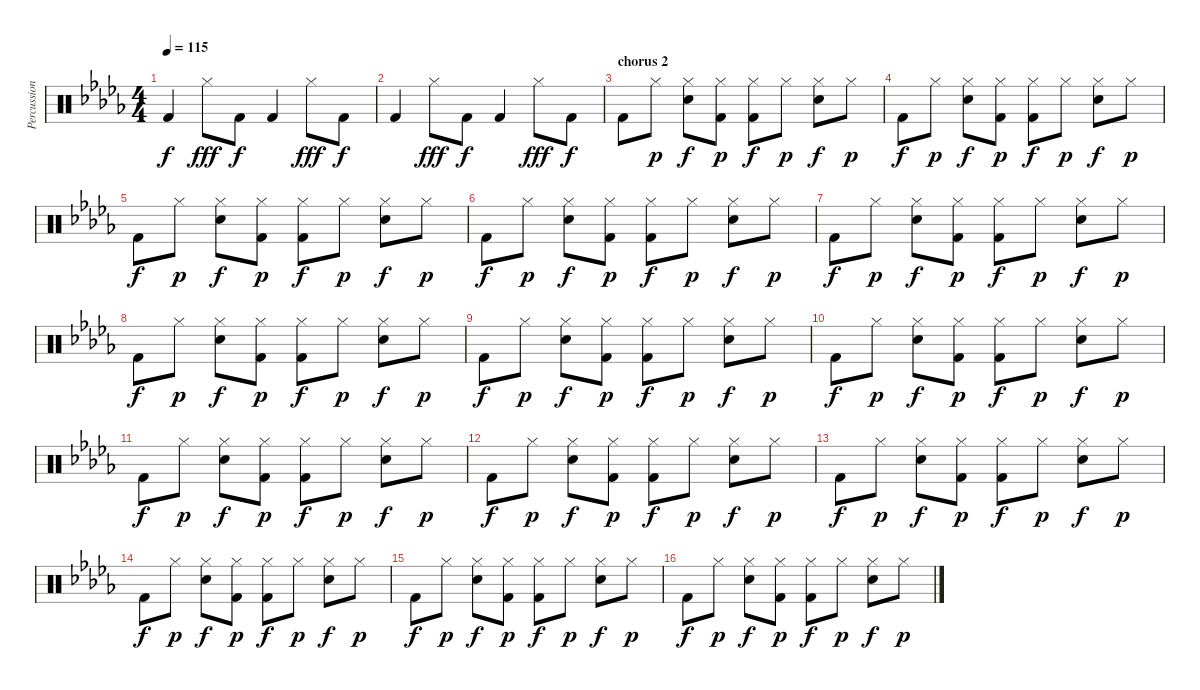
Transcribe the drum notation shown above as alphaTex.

\track ("Percussion" "Percussion") {instrument percussion}
\staff {score}
\articulation defaults
\ts (4 4)
\tempo 115
\clef neutral
\ks db "Kick (hit) 2".4{dy f} "Hi-Hat (closed)".8{dy fff} "Kick (hit) 2".8{dy f} "Kick (hit) 2".4 "Hi-Hat (closed)".8{dy fff} "Kick (hit) 2".8{dy f}
|
"Kick (hit) 2".4 "Hi-Hat (closed)".8{dy fff} "Kick (hit) 2".8{dy f} "Kick (hit) 2".4 "Hi-Hat (closed)".8{dy fff} "Kick (hit) 2".8{dy f} |
\section ("" "chorus 2")
"Kick (hit) 2".8 "Hi-Hat (closed)".8{dy p} ("Hi-Hat (closed)" "Hand Clap (hit)").8{dy f} ("Hi-Hat (closed)" "Kick (hit) 2").8{dy p} ("Kick (hit) 2" "Hi-Hat (closed)").8{dy f} "Hi-Hat (closed)".8{dy p} ("Hand Clap (hit)" "Hi-Hat (closed)").8{dy f} "Hi-Hat (closed)".8{dy p} |
"Kick (hit) 2".8{dy f} "Hi-Hat (closed)".8{dy p} ("Hi-Hat (closed)" "Hand Clap (hit)").8{dy f} ("Hi-Hat (closed)" "Kick (hit) 2").8{dy p} ("Kick (hit) 2" "Hi-Hat (closed)").8{dy f} "Hi-Hat (closed)".8{dy p} ("Hand Clap (hit)" "Hi-Hat (closed)").8{dy f} "Hi-Hat (closed)".8{dy p} |
"Kick (hit) 2".8{dy f} "Hi-Hat (closed)".8{dy p} ("Hi-Hat (closed)" "Hand Clap (hit)").8{dy f} ("Hi-Hat (closed)" "Kick (hit) 2").8{dy p} ("Kick (hit) 2" "Hi-Hat (closed)").8{dy f} "Hi-Hat (closed)".8{dy p} ("Hand Clap (hit)" "Hi-Hat (closed)").8{dy f} "Hi-Hat (closed)".8{dy p} |
"Kick (hit) 2".8{dy f} "Hi-Hat (closed)".8{dy p} ("Hi-Hat (closed)" "Hand Clap (hit)").8{dy f} ("Hi-Hat (closed)" "Kick (hit) 2").8{dy p} ("Kick (hit) 2" "Hi-Hat (closed)").8{dy f} "Hi-Hat (closed)".8{dy p} ("Hand Clap (hit)" "Hi-Hat (closed)").8{dy f} "Hi-Hat (closed)".8{dy p} |
"Kick (hit) 2".8{dy f} "Hi-Hat (closed)".8{dy p} ("Hi-Hat (closed)" "Hand Clap (hit)").8{dy f} ("Hi-Hat (closed)" "Kick (hit) 2").8{dy p} ("Kick (hit) 2" "Hi-Hat (closed)").8{dy f} "Hi-Hat (closed)".8{dy p} ("Hand Clap (hit)" "Hi-Hat (closed)").8{dy f} "Hi-Hat (closed)".8{dy p} |
"Kick (hit) 2".8{dy f} "Hi-Hat (closed)".8{dy p} ("Hi-Hat (closed)" "Hand Clap (hit)").8{dy f} ("Hi-Hat (closed)" "Kick (hit) 2").8{dy p} ("Kick (hit) 2" "Hi-Hat (closed)").8{dy f} "Hi-Hat (closed)".8{dy p} ("Hand Clap (hit)" "Hi-Hat (closed)").8{dy f} "Hi-Hat (closed)".8{dy p} |
"Kick (hit) 2".8{dy f} "Hi-Hat (closed)".8{dy p} ("Hi-Hat (closed)" "Hand Clap (hit)").8{dy f} ("Hi-Hat (closed)" "Kick (hit) 2").8{dy p} ("Kick (hit) 2" "Hi-Hat (closed)").8{dy f} "Hi-Hat (closed)".8{dy p} ("Hand Clap (hit)" "Hi-Hat (closed)").8{dy f} "Hi-Hat (closed)".8{dy p} |
"Kick (hit) 2".8{dy f} "Hi-Hat (closed)".8{dy p} ("Hi-Hat (closed)" "Hand Clap (hit)").8{dy f} ("Hi-Hat (closed)" "Kick (hit) 2").8{dy p} ("Kick (hit) 2" "Hi-Hat (closed)").8{dy f} "Hi-Hat (closed)".8{dy p} ("Hand Clap (hit)" "Hi-Hat (closed)").8{dy f} "Hi-Hat (closed)".8{dy p} |
"Kick (hit) 2".8{dy f} "Hi-Hat (closed)".8{dy p} ("Hi-Hat (closed)" "Hand Clap (hit)").8{dy f} ("Hi-Hat (closed)" "Kick (hit) 2").8{dy p} ("Kick (hit) 2" "Hi-Hat (closed)").8{dy f} "Hi-Hat (closed)".8{dy p} ("Hand Clap (hit)" "Hi-Hat (closed)").8{dy f} "Hi-Hat (closed)".8{dy p} |
"Kick (hit) 2".8{dy f} "Hi-Hat (closed)".8{dy p} ("Hi-Hat (closed)" "Hand Clap (hit)").8{dy f} ("Hi-Hat (closed)" "Kick (hit) 2").8{dy p} ("Kick (hit) 2" "Hi-Hat (closed)").8{dy f} "Hi-Hat (closed)".8{dy p} ("Hand Clap (hit)" "Hi-Hat (closed)").8{dy f} "Hi-Hat (closed)".8{dy p} |
"Kick (hit) 2".8{dy f} "Hi-Hat (closed)".8{dy p} ("Hi-Hat (closed)" "Hand Clap (hit)").8{dy f} ("Hi-Hat (closed)" "Kick (hit) 2").8{dy p} ("Kick (hit) 2" "Hi-Hat (closed)").8{dy f} "Hi-Hat (closed)".8{dy p} ("Hand Clap (hit)" "Hi-Hat (closed)").8{dy f} "Hi-Hat (closed)".8{dy p} |
"Kick (hit) 2".8{dy f} "Hi-Hat (closed)".8{dy p} ("Hi-Hat (closed)" "Hand Clap (hit)").8{dy f} ("Hi-Hat (closed)" "Kick (hit) 2").8{dy p} ("Kick (hit) 2" "Hi-Hat (closed)").8{dy f} "Hi-Hat (closed)".8{dy p} ("Hand Clap (hit)" "Hi-Hat (closed)").8{dy f} "Hi-Hat (closed)".8{dy p} |
"Kick (hit) 2".8{dy f} "Hi-Hat (closed)".8{dy p} ("Hi-Hat (closed)" "Hand Clap (hit)").8{dy f} ("Hi-Hat (closed)" "Kick (hit) 2").8{dy p} ("Kick (hit) 2" "Hi-Hat (closed)").8{dy f} "Hi-Hat (closed)".8{dy p} ("Hand Clap (hit)" "Hi-Hat (closed)").8{dy f} "Hi-Hat (closed)".8{dy p} |
"Kick (hit) 2".8{dy f} "Hi-Hat (closed)".8{dy p} ("Hi-Hat (closed)" "Hand Clap (hit)").8{dy f} ("Hi-Hat (closed)" "Kick (hit) 2").8{dy p} ("Kick (hit) 2" "Hi-Hat (closed)").8{dy f} "Hi-Hat (closed)".8{dy p} ("Hand Clap (hit)" "Hi-Hat (closed)").8{dy f} "Hi-Hat (closed)".8{dy p}
